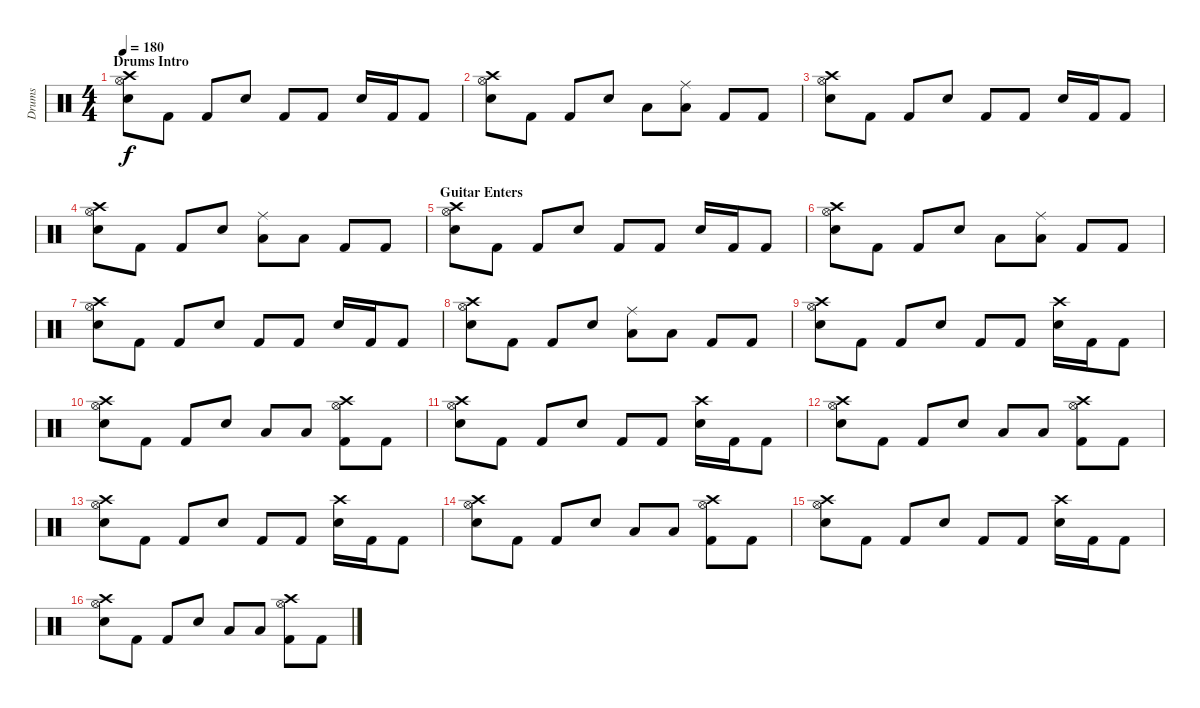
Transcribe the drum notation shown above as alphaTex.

\track ("Drums" "Drums") {instrument percussion}
\staff {score}
\articulation defaults
\ts (4 4)
\section ("" "Drums Intro")
\tempo 180
\clef neutral
\ks c
("Hi-Hat (open)" "Crash high (hit)" "Snare (hit) 2").8{dy f} "Kick (hit) 2".8 "Kick (hit) 2".8 "Snare (hit) 2".8 "Kick (hit) 2".8 "Kick (hit) 2".8 "Snare (hit) 2".16 "Kick (hit) 2".16 "Kick (hit) 2".8 |
("Hi-Hat (open)" "Crash high (hit)" "Snare (hit) 2").8 "Kick (hit) 2".8 "Kick (hit) 2".8 "Snare (hit) 2".8 "Low Tom (hit)".8 ("Ride (middle)" "Low Floor Tom (hit)").8 "Kick (hit) 2".8 "Kick (hit) 2".8 |
("Hi-Hat (open)" "Crash high (hit)" "Snare (hit) 2").8 "Kick (hit) 2".8 "Kick (hit) 2".8 "Snare (hit) 2".8 "Kick (hit) 2".8 "Kick (hit) 2".8 "Snare (hit) 2".16 "Kick (hit) 2".16 "Kick (hit) 2".8 |
("Hi-Hat (open)" "Crash high (hit)" "Snare (hit) 2").8 "Kick (hit) 2".8 "Kick (hit) 2".8 "Snare (hit) 2".8 ("Ride (middle)" "Low Tom (hit)").8 "Low Floor Tom (hit)".8 "Kick (hit) 2".8 "Kick (hit) 2".8 |
\section ("" "Guitar Enters")
("Hi-Hat (open)" "Crash high (hit)" "Snare (hit) 2").8 "Kick (hit) 2".8 "Kick (hit) 2".8 "Snare (hit) 2".8 "Kick (hit) 2".8 "Kick (hit) 2".8 "Snare (hit) 2".16 "Kick (hit) 2".16 "Kick (hit) 2".8 |
("Hi-Hat (open)" "Crash high (hit)" "Snare (hit) 2").8 "Kick (hit) 2".8 "Kick (hit) 2".8 "Snare (hit) 2".8 "Low Tom (hit)".8 ("Ride (middle)" "Low Floor Tom (hit)").8 "Kick (hit) 2".8 "Kick (hit) 2".8 |
("Hi-Hat (open)" "Crash high (hit)" "Snare (hit) 2").8 "Kick (hit) 2".8 "Kick (hit) 2".8 "Snare (hit) 2".8 "Kick (hit) 2".8 "Kick (hit) 2".8 "Snare (hit) 2".16 "Kick (hit) 2".16 "Kick (hit) 2".8 |
("Hi-Hat (open)" "Crash high (hit)" "Snare (hit) 2").8 "Kick (hit) 2".8 "Kick (hit) 2".8 "Snare (hit) 2".8 ("Ride (middle)" "Low Tom (hit)").8 "Low Floor Tom (hit)".8 "Kick (hit) 2".8 "Kick (hit) 2".8 |
("Hi-Hat (open)" "Crash high (hit)" "Snare (hit) 2").8 "Kick (hit) 2".8 "Kick (hit) 2".8 "Snare (hit) 2".8 "Kick (hit) 2".8 "Kick (hit) 2".8 ("Crash high (hit)" "Snare (hit) 2").16 "Kick (hit) 2".16 "Kick (hit) 2".8 |
("Hi-Hat (open)" "Crash high (hit)" "Snare (hit) 2").8 "Kick (hit) 2".8 "Kick (hit) 2".8 "Snare (hit) 2".8 "Low Tom (hit)".8 "Low Floor Tom (hit)".8 ("Crash high (hit)" "Hi-Hat (open)" "Kick (hit) 2").8 "Kick (hit) 2".8 |
("Hi-Hat (open)" "Crash high (hit)" "Snare (hit) 2").8 "Kick (hit) 2".8 "Kick (hit) 2".8 "Snare (hit) 2".8 "Kick (hit) 2".8 "Kick (hit) 2".8 ("Crash high (hit)" "Snare (hit) 2").16 "Kick (hit) 2".16 "Kick (hit) 2".8 |
("Hi-Hat (open)" "Crash high (hit)" "Snare (hit) 2").8 "Kick (hit) 2".8 "Kick (hit) 2".8 "Snare (hit) 2".8 "Low Tom (hit)".8 "Low Floor Tom (hit)".8 ("Crash high (hit)" "Hi-Hat (open)" "Kick (hit) 2").8 "Kick (hit) 2".8 |
("Hi-Hat (open)" "Crash high (hit)" "Snare (hit) 2").8 "Kick (hit) 2".8 "Kick (hit) 2".8 "Snare (hit) 2".8 "Kick (hit) 2".8 "Kick (hit) 2".8 ("Crash high (hit)" "Snare (hit) 2").16 "Kick (hit) 2".16 "Kick (hit) 2".8 |
("Hi-Hat (open)" "Crash high (hit)" "Snare (hit) 2").8 "Kick (hit) 2".8 "Kick (hit) 2".8 "Snare (hit) 2".8 "Low Tom (hit)".8 "Low Floor Tom (hit)".8 ("Crash high (hit)" "Hi-Hat (open)" "Kick (hit) 2").8 "Kick (hit) 2".8 |
("Hi-Hat (open)" "Crash high (hit)" "Snare (hit) 2").8 "Kick (hit) 2".8 "Kick (hit) 2".8 "Snare (hit) 2".8 "Kick (hit) 2".8 "Kick (hit) 2".8 ("Crash high (hit)" "Snare (hit) 2").16 "Kick (hit) 2".16 "Kick (hit) 2".8 |
("Hi-Hat (open)" "Crash high (hit)" "Snare (hit) 2").8 "Kick (hit) 2".8 "Kick (hit) 2".8 "Snare (hit) 2".8 "Low Tom (hit)".8 "Low Floor Tom (hit)".8 ("Crash high (hit)" "Hi-Hat (open)" "Kick (hit) 2").8 "Kick (hit) 2".8
